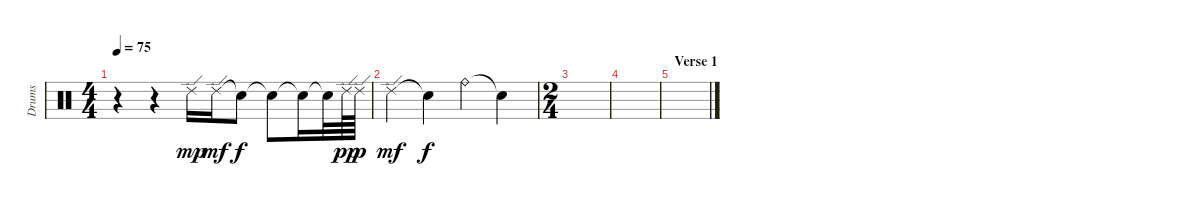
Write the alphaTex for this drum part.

\track ("Drums" "Drums") {instrument percussion}
\staff {score}
\articulation defaults
\ts (4 4)
\tempo 75
\clef neutral
\ks c
r.4{dy mp} r.4 "Ride (edge) 2".16 "Ride (edge) 2".16{dy mf} "Snare (hit)"{t}.8{dy f} "Snare (hit)"{t}.8 "Snare (hit)"{t}.16 "Snare (hit)"{t}.32 "Ride (edge) 2".64{dy pp} "Ride (edge) 2".64{dy p} |
"Ride (edge) 2".4{dy mf} "Snare (hit)"{t}.4{dy f} "Ride (bell)".4 "Snare (hit)"{t}.4 |
\ts (2 4)
|
|
\section ("" "Verse 1")
